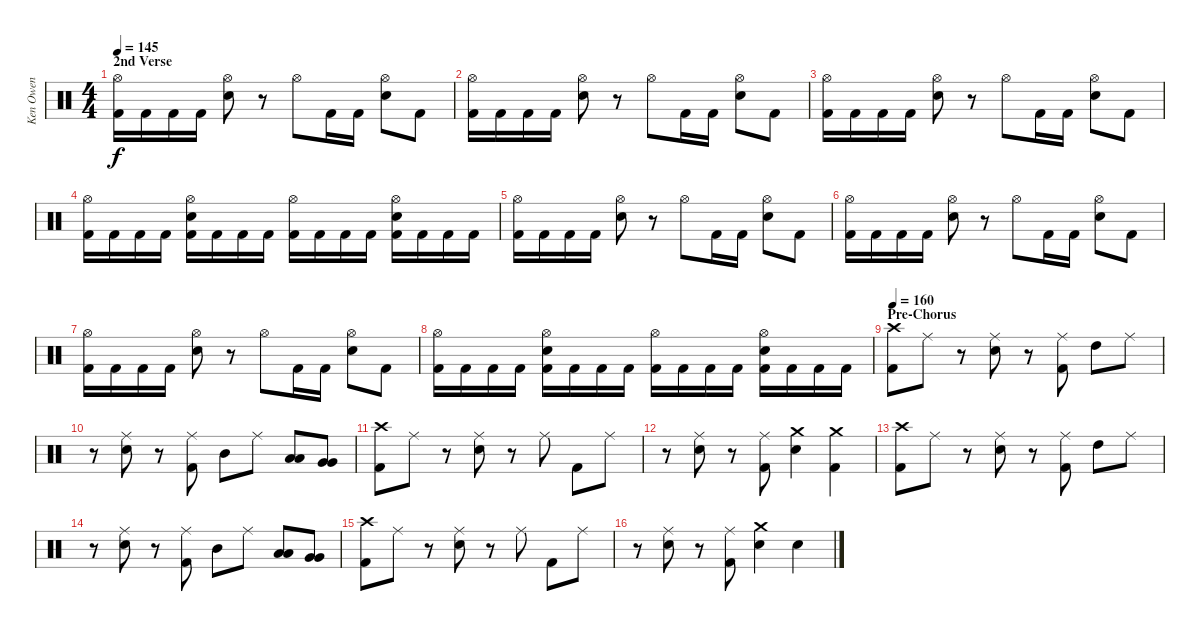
\track ("Ken Owen" "Ken Owen") {instrument percussion}
\staff {score}
\articulation defaults
\ts (4 4)
\section ("" "2nd Verse")
\tempo 145
\clef neutral
\ks c
("Hi-Hat (open)" "Kick (hit) 2").16{dy f} "Kick (hit) 2".16 "Kick (hit) 2".16 "Kick (hit) 2".16 ("Hi-Hat (open)" "Electric Snare (hit)").8 r.8 "Hi-Hat (open)".8 "Kick (hit) 2".16 "Kick (hit) 2".16 ("Hi-Hat (open)" "Electric Snare (hit)").8 "Kick (hit) 2".8 |
("Hi-Hat (open)" "Kick (hit) 2").16 "Kick (hit) 2".16 "Kick (hit) 2".16 "Kick (hit) 2".16 ("Hi-Hat (open)" "Electric Snare (hit)").8 r.8 "Hi-Hat (open)".8 "Kick (hit) 2".16 "Kick (hit) 2".16 ("Hi-Hat (open)" "Electric Snare (hit)").8 "Kick (hit) 2".8 |
("Hi-Hat (open)" "Kick (hit) 2").16 "Kick (hit) 2".16 "Kick (hit) 2".16 "Kick (hit) 2".16 ("Hi-Hat (open)" "Electric Snare (hit)").8 r.8 "Hi-Hat (open)".8 "Kick (hit) 2".16 "Kick (hit) 2".16 ("Hi-Hat (open)" "Electric Snare (hit)").8 "Kick (hit) 2".8 |
("Hi-Hat (open)" "Kick (hit) 2").16 "Kick (hit) 2".16 "Kick (hit) 2".16 "Kick (hit) 2".16 ("Hi-Hat (open)" "Electric Snare (hit)" "Kick (hit) 2").16 "Kick (hit) 2".16 "Kick (hit) 2".16 "Kick (hit) 2".16 ("Hi-Hat (open)" "Kick (hit) 2").16 "Kick (hit) 2".16 "Kick (hit) 2".16 "Kick (hit) 2".16 ("Hi-Hat (open)" "Electric Snare (hit)" "Kick (hit) 2").16 "Kick (hit) 2".16 "Kick (hit) 2".16 "Kick (hit) 2".16 |
("Hi-Hat (open)" "Kick (hit) 2").16 "Kick (hit) 2".16 "Kick (hit) 2".16 "Kick (hit) 2".16 ("Hi-Hat (open)" "Electric Snare (hit)").8 r.8 "Hi-Hat (open)".8 "Kick (hit) 2".16 "Kick (hit) 2".16 ("Hi-Hat (open)" "Electric Snare (hit)").8 "Kick (hit) 2".8 |
("Hi-Hat (open)" "Kick (hit) 2").16 "Kick (hit) 2".16 "Kick (hit) 2".16 "Kick (hit) 2".16 ("Hi-Hat (open)" "Electric Snare (hit)").8 r.8 "Hi-Hat (open)".8 "Kick (hit) 2".16 "Kick (hit) 2".16 ("Hi-Hat (open)" "Electric Snare (hit)").8 "Kick (hit) 2".8 |
("Hi-Hat (open)" "Kick (hit) 2").16 "Kick (hit) 2".16 "Kick (hit) 2".16 "Kick (hit) 2".16 ("Hi-Hat (open)" "Electric Snare (hit)").8 r.8 "Hi-Hat (open)".8 "Kick (hit) 2".16 "Kick (hit) 2".16 ("Hi-Hat (open)" "Electric Snare (hit)").8 "Kick (hit) 2".8 |
("Hi-Hat (open)" "Kick (hit) 2").16 "Kick (hit) 2".16 "Kick (hit) 2".16 "Kick (hit) 2".16 ("Hi-Hat (open)" "Electric Snare (hit)" "Kick (hit) 2").16 "Kick (hit) 2".16 "Kick (hit) 2".16 "Kick (hit) 2".16 ("Hi-Hat (open)" "Kick (hit) 2").16 "Kick (hit) 2".16 "Kick (hit) 2".16 "Kick (hit) 2".16 ("Hi-Hat (open)" "Electric Snare (hit)" "Kick (hit) 2").16 "Kick (hit) 2".16 "Kick (hit) 2".16 "Kick (hit) 2".16 |
\section ("" "Pre-Chorus")
\tempo 160
("Crash high (hit)" "Kick (hit) 2").8 "Ride (middle)".8 r.8 ("Ride (middle)" "Electric Snare (hit)").8 r.8 ("Ride (middle)" "Kick (hit) 2").8 "High Tom (hit)".8 "Ride (middle)".8 |
r.8 ("Ride (middle)" "Electric Snare (hit)").8 r.8 ("Ride (middle)" "Kick (hit) 2").8 "Mid Tom (hit)".8 "Ride (middle)".8 ("Low Tom (hit)" "Low Tom (hit)").8 ("Very Low Tom (hit)" "Very Low Tom (hit)").8 |
("Crash high (hit)" "Kick (hit) 2").8 "Ride (middle)".8 r.8 ("Ride (middle)" "Electric Snare (hit)").8 r.8 "Ride (middle)".8 "Kick (hit) 2".8 "Ride (middle)".8 |
r.8 ("Ride (middle)" "Electric Snare (hit)").8 r.8 ("Ride (middle)" "Kick (hit) 2").8 ("Crash medium (hit)" "Electric Snare (hit)").4 ("Crash medium (hit)" "Kick (hit) 2").4 |
("Crash high (hit)" "Kick (hit) 2").8 "Ride (middle)".8 r.8 ("Ride (middle)" "Electric Snare (hit)").8 r.8 ("Ride (middle)" "Kick (hit) 2").8 "High Tom (hit)".8 "Ride (middle)".8 |
r.8 ("Ride (middle)" "Electric Snare (hit)").8 r.8 ("Ride (middle)" "Kick (hit) 2").8 "Mid Tom (hit)".8 "Ride (middle)".8 ("Low Tom (hit)" "Low Tom (hit)").8 ("Very Low Tom (hit)" "Very Low Tom (hit)").8 |
("Crash high (hit)" "Kick (hit) 2").8 "Ride (middle)".8 r.8 ("Ride (middle)" "Electric Snare (hit)").8 r.8 "Ride (middle)".8 "Kick (hit) 2".8 "Ride (middle)".8 |
r.8 ("Ride (middle)" "Electric Snare (hit)").8 r.8 ("Ride (middle)" "Kick (hit) 2").8 ("Crash medium (hit)" "Electric Snare (hit)").4 "Electric Snare (hit)".4
